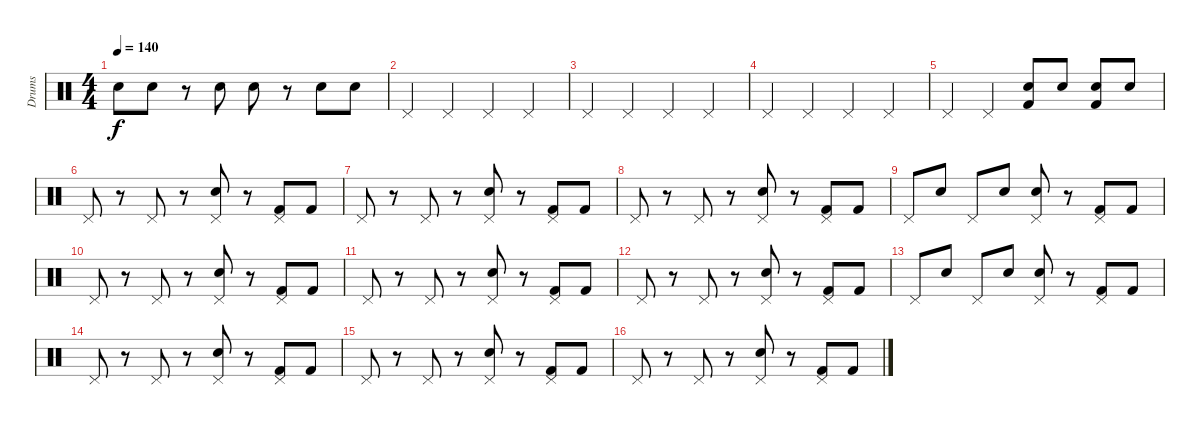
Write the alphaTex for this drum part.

\track ("Drums" "Drums") {instrument percussion}
\staff {score}
\articulation defaults
\ts (4 4)
\tempo 140
\clef neutral
\ks c "Snare (hit) 2".8{dy f} "Snare (hit) 2".8
r.8 "Snare (hit) 2".8 "Snare (hit) 2".8 r.8 "Snare (hit) 2".8 "Snare (hit) 2".8 |
"Pedal Hi-Hat (hit)".4 "Pedal Hi-Hat (hit)".4 "Pedal Hi-Hat (hit)".4 "Pedal Hi-Hat (hit)".4 |
"Pedal Hi-Hat (hit)".4 "Pedal Hi-Hat (hit)".4 "Pedal Hi-Hat (hit)".4 "Pedal Hi-Hat (hit)".4 |
"Pedal Hi-Hat (hit)".4 "Pedal Hi-Hat (hit)".4 "Pedal Hi-Hat (hit)".4 "Pedal Hi-Hat (hit)".4 |
"Pedal Hi-Hat (hit)".4 "Pedal Hi-Hat (hit)".4 ("Snare (hit) 2" "Kick (hit) 2").8 "Snare (hit) 2".8 ("Snare (hit) 2" "Kick (hit) 2").8 "Snare (hit) 2".8 |
"Pedal Hi-Hat (hit)".8 r.8 "Pedal Hi-Hat (hit)".8 r.8 ("Pedal Hi-Hat (hit)" "Snare (hit) 2").8 r.8 ("Pedal Hi-Hat (hit)" "Kick (hit) 2").8 "Kick (hit) 2".8 |
"Pedal Hi-Hat (hit)".8 r.8 "Pedal Hi-Hat (hit)".8 r.8 ("Pedal Hi-Hat (hit)" "Snare (hit) 2").8 r.8 ("Pedal Hi-Hat (hit)" "Kick (hit) 2").8 "Kick (hit) 2".8 |
"Pedal Hi-Hat (hit)".8 r.8 "Pedal Hi-Hat (hit)".8 r.8 ("Pedal Hi-Hat (hit)" "Snare (hit) 2").8 r.8 ("Pedal Hi-Hat (hit)" "Kick (hit) 2").8 "Kick (hit) 2".8 |
"Pedal Hi-Hat (hit)".8 "Snare (hit) 2".8 "Pedal Hi-Hat (hit)".8 "Snare (hit) 2".8 ("Pedal Hi-Hat (hit)" "Snare (hit) 2").8 r.8 ("Pedal Hi-Hat (hit)" "Kick (hit) 2").8 "Kick (hit) 2".8 |
"Pedal Hi-Hat (hit)".8 r.8 "Pedal Hi-Hat (hit)".8 r.8 ("Pedal Hi-Hat (hit)" "Snare (hit) 2").8 r.8 ("Pedal Hi-Hat (hit)" "Kick (hit) 2").8 "Kick (hit) 2".8 |
"Pedal Hi-Hat (hit)".8 r.8 "Pedal Hi-Hat (hit)".8 r.8 ("Pedal Hi-Hat (hit)" "Snare (hit) 2").8 r.8 ("Pedal Hi-Hat (hit)" "Kick (hit) 2").8 "Kick (hit) 2".8 |
"Pedal Hi-Hat (hit)".8 r.8 "Pedal Hi-Hat (hit)".8 r.8 ("Pedal Hi-Hat (hit)" "Snare (hit) 2").8 r.8 ("Pedal Hi-Hat (hit)" "Kick (hit) 2").8 "Kick (hit) 2".8 |
"Pedal Hi-Hat (hit)".8 "Snare (hit) 2".8 "Pedal Hi-Hat (hit)".8 "Snare (hit) 2".8 ("Pedal Hi-Hat (hit)" "Snare (hit) 2").8 r.8 ("Pedal Hi-Hat (hit)" "Kick (hit) 2").8 "Kick (hit) 2".8 |
"Pedal Hi-Hat (hit)".8 r.8 "Pedal Hi-Hat (hit)".8 r.8 ("Pedal Hi-Hat (hit)" "Snare (hit) 2").8 r.8 ("Pedal Hi-Hat (hit)" "Kick (hit) 2").8 "Kick (hit) 2".8 |
"Pedal Hi-Hat (hit)".8 r.8 "Pedal Hi-Hat (hit)".8 r.8 ("Pedal Hi-Hat (hit)" "Snare (hit) 2").8 r.8 ("Pedal Hi-Hat (hit)" "Kick (hit) 2").8 "Kick (hit) 2".8 |
"Pedal Hi-Hat (hit)".8 r.8 "Pedal Hi-Hat (hit)".8 r.8 ("Pedal Hi-Hat (hit)" "Snare (hit) 2").8 r.8 ("Pedal Hi-Hat (hit)" "Kick (hit) 2").8 "Kick (hit) 2".8
